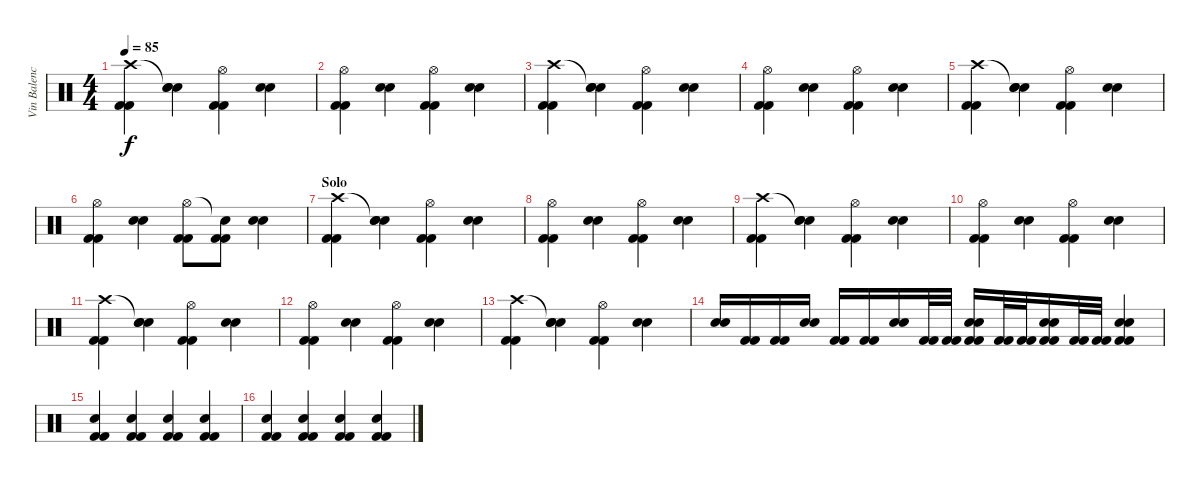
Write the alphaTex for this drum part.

\track ("Vin Balencia (bateria)" "Vin Balenc") {instrument percussion}
\staff {score}
\articulation defaults
\ts (4 4)
\tempo 85
\clef neutral
\ks c
("Crash high (hit)" "Kick (hit) 2" "Kick (hit) 2").4{dy f} ("Snare (hit)"{t} "Snare (hit) 2" "Snare (hit) 2").4 ("Hi-Hat (open)" "Kick (hit) 2" "Kick (hit) 2").4 ("Snare (hit) 2" "Snare (hit) 2").4 |
("Hi-Hat (open)" "Kick (hit) 2" "Kick (hit) 2").4 ("Snare (hit) 2" "Snare (hit) 2").4 ("Hi-Hat (open)" "Kick (hit) 2" "Kick (hit) 2").4 ("Snare (hit) 2" "Snare (hit) 2").4 |
("Crash high (hit)" "Kick (hit) 2" "Kick (hit) 2").4 ("Snare (hit)"{t} "Snare (hit) 2" "Snare (hit) 2").4 ("Hi-Hat (open)" "Kick (hit) 2" "Kick (hit) 2").4 ("Snare (hit) 2" "Snare (hit) 2").4 |
("Hi-Hat (open)" "Kick (hit) 2" "Kick (hit) 2").4 ("Snare (hit) 2" "Snare (hit) 2").4 ("Hi-Hat (open)" "Kick (hit) 2" "Kick (hit) 2").4 ("Snare (hit) 2" "Snare (hit) 2").4 |
("Crash high (hit)" "Kick (hit) 2" "Kick (hit) 2").4 ("Snare (hit)"{t} "Snare (hit) 2" "Snare (hit) 2").4 ("Hi-Hat (open)" "Kick (hit) 2" "Kick (hit) 2").4 ("Snare (hit) 2" "Snare (hit) 2").4 |
("Hi-Hat (open)" "Kick (hit) 2" "Kick (hit) 2").4 ("Snare (hit) 2" "Snare (hit) 2").4 ("Hi-Hat (open)" "Kick (hit) 2" "Kick (hit) 2").8 ("Snare (hit)"{t} "Kick (hit) 2" "Kick (hit) 2").8 ("Snare (hit) 2" "Snare (hit) 2").4 |
\section ("" "Solo")
("Crash high (hit)" "Kick (hit) 2" "Kick (hit) 2").4 ("Snare (hit)"{t} "Snare (hit) 2" "Snare (hit) 2").4 ("Hi-Hat (open)" "Kick (hit) 2" "Kick (hit) 2").4 ("Snare (hit) 2" "Snare (hit) 2").4 |
("Hi-Hat (open)" "Kick (hit) 2" "Kick (hit) 2").4 ("Snare (hit) 2" "Snare (hit) 2").4 ("Hi-Hat (open)" "Kick (hit) 2" "Kick (hit) 2").4 ("Snare (hit) 2" "Snare (hit) 2").4 |
("Crash high (hit)" "Kick (hit) 2" "Kick (hit) 2").4 ("Snare (hit)"{t} "Snare (hit) 2" "Snare (hit) 2").4 ("Hi-Hat (open)" "Kick (hit) 2" "Kick (hit) 2").4 ("Snare (hit) 2" "Snare (hit) 2").4 |
("Hi-Hat (open)" "Kick (hit) 2" "Kick (hit) 2").4 ("Snare (hit) 2" "Snare (hit) 2").4 ("Hi-Hat (open)" "Kick (hit) 2" "Kick (hit) 2").4 ("Snare (hit) 2" "Snare (hit) 2").4 |
("Crash high (hit)" "Kick (hit) 2" "Kick (hit) 2").4 ("Snare (hit)"{t} "Snare (hit) 2" "Snare (hit) 2").4 ("Hi-Hat (open)" "Kick (hit) 2" "Kick (hit) 2").4 ("Snare (hit) 2" "Snare (hit) 2").4 |
("Hi-Hat (open)" "Kick (hit) 2" "Kick (hit) 2").4 ("Snare (hit) 2" "Snare (hit) 2").4 ("Hi-Hat (open)" "Kick (hit) 2" "Kick (hit) 2").4 ("Snare (hit) 2" "Snare (hit) 2").4 |
("Crash high (hit)" "Kick (hit) 2" "Kick (hit) 2").4 ("Snare (hit)"{t} "Snare (hit) 2" "Snare (hit) 2").4 ("Hi-Hat (open)" "Kick (hit) 2" "Kick (hit) 2").4 ("Snare (hit) 2" "Snare (hit) 2").4 |
("Electric Snare (hit)" "Snare (hit) 2").16 ("Kick (hit) 2" "Kick (hit) 2").16 ("Kick (hit) 2" "Kick (hit) 2").16 ("Snare (hit) 2" "Snare (hit) 2").16 ("Kick (hit) 2" "Kick (hit) 2").16 ("Kick (hit) 2" "Kick (hit) 2").16 ("Snare (hit) 2" "Snare (hit) 2").16 ("Kick (hit) 2" "Kick (hit) 2").32 ("Kick (hit) 2" "Kick (hit) 2").32 ("Snare (hit) 2" "Snare (hit) 2" "Kick (hit) 2" "Kick (hit) 2").16 ("Kick (hit) 2" "Kick (hit) 2").32 ("Kick (hit) 2" "Kick (hit) 2").32 ("Snare (hit) 2" "Snare (hit) 2" "Kick (hit) 2" "Kick (hit) 2").16 ("Kick (hit) 2" "Kick (hit) 2").32 ("Kick (hit) 2" "Kick (hit) 2").32 ("Snare (hit) 2" "Snare (hit) 2" "Kick (hit) 2" "Kick (hit) 2").4 |
("Kick (hit) 2" "Kick (hit) 2" "Snare (hit) 2").4 ("Kick (hit) 2" "Kick (hit) 2" "Snare (hit) 2").4 ("Kick (hit) 2" "Kick (hit) 2" "Snare (hit) 2").4 ("Kick (hit) 2" "Kick (hit) 2" "Snare (hit) 2").4 |
("Kick (hit) 2" "Kick (hit) 2" "Snare (hit) 2").4 ("Kick (hit) 2" "Kick (hit) 2" "Snare (hit) 2").4 ("Kick (hit) 2" "Kick (hit) 2" "Snare (hit) 2").4 ("Kick (hit) 2" "Kick (hit) 2" "Snare (hit) 2").4
